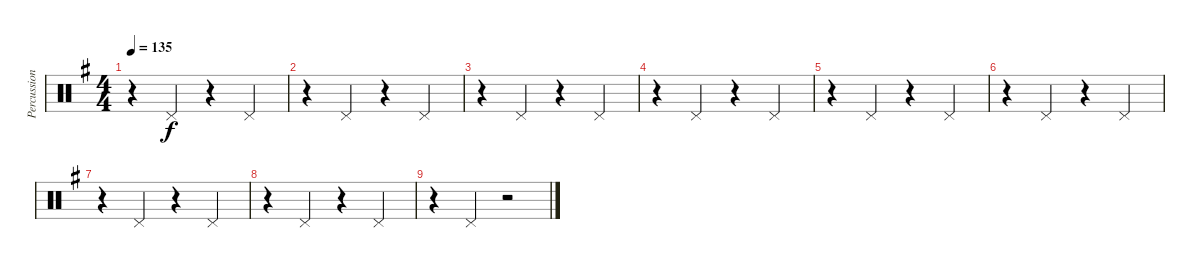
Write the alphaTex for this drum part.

\track ("Percussion" "Percussion") {instrument percussion}
\staff {score}
\articulation defaults
\ts (4 4)
\tempo 135
\clef neutral
\ks g
r.4{dy f} "Pedal Hi-Hat (hit)".4 r.4 "Pedal Hi-Hat (hit)".4 |
r.4 "Pedal Hi-Hat (hit)".4 r.4 "Pedal Hi-Hat (hit)".4 |
r.4 "Pedal Hi-Hat (hit)".4 r.4 "Pedal Hi-Hat (hit)".4 |
r.4 "Pedal Hi-Hat (hit)".4 r.4 "Pedal Hi-Hat (hit)".4 |
r.4 "Pedal Hi-Hat (hit)".4 r.4 "Pedal Hi-Hat (hit)".4 |
r.4 "Pedal Hi-Hat (hit)".4 r.4 "Pedal Hi-Hat (hit)".4 |
r.4 "Pedal Hi-Hat (hit)".4 r.4 "Pedal Hi-Hat (hit)".4 |
r.4 "Pedal Hi-Hat (hit)".4 r.4 "Pedal Hi-Hat (hit)".4 |
r.4 "Pedal Hi-Hat (hit)".4 r.2
